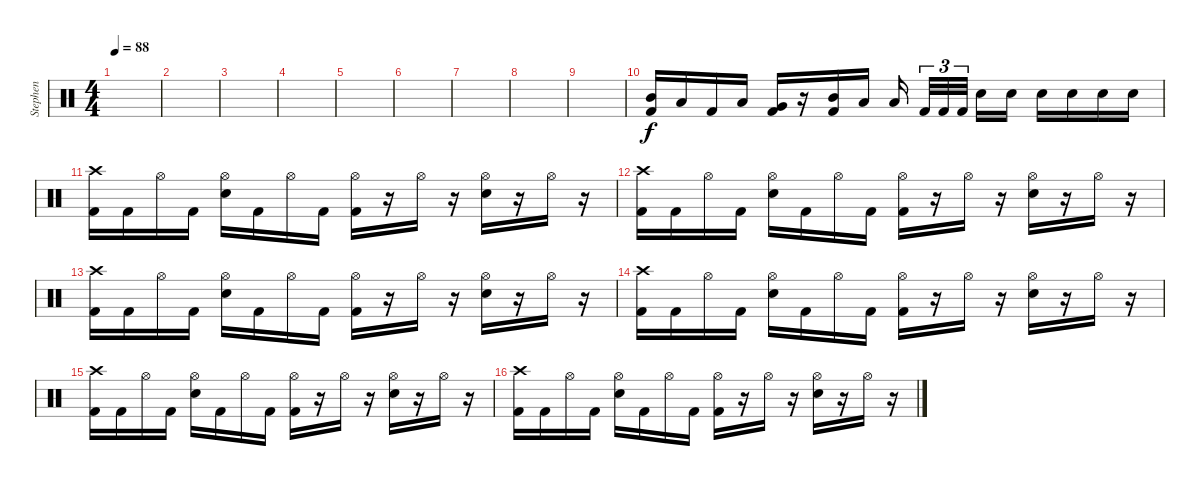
\track ("Stephen" "Stephen") {instrument percussion}
\staff {score}
\articulation defaults
\ts (4 4)
\tempo 88
\clef neutral
\ks c
|
|
|
|
|
|
|
|
|
("Mid Tom (hit)" "Kick (hit) 2").16 "Low Tom (hit)".16 "Kick (hit) 2".16 "Low Tom (hit)".16 ("Very Low Tom (hit)" "Kick (hit) 2").16 r.16 ("Mid Tom (hit)" "Kick (hit) 2").16 "Low Tom (hit)".16 "Low Floor Tom (hit)".16{beam splitsecondary} "Kick (hit) 2".32{tu (3 2)} "Kick (hit) 2".32{tu (3 2)} "Kick (hit) 2".32{tu (3 2) beam splitsecondary} "Electric Snare (hit)".16 "Electric Snare (hit)".16 "Electric Snare (hit)".16 "Electric Snare (hit)".16 "Electric Snare (hit)".16 "Electric Snare (hit)".16 |
("Crash high (hit)" "Kick (hit) 2").16 "Kick (hit) 2".16 "Hi-Hat (open)".16 "Kick (hit) 2".16 ("Hi-Hat (open)" "Electric Snare (hit)").16 "Kick (hit) 2".16 "Hi-Hat (open)".16 "Kick (hit) 2".16 ("Hi-Hat (open)" "Kick (hit) 2").16 r.16 "Hi-Hat (open)".16 r.16 ("Hi-Hat (open)" "Electric Snare (hit)").16 r.16 "Hi-Hat (open)".16 r.16 |
("Crash high (hit)" "Kick (hit) 2").16 "Kick (hit) 2".16 "Hi-Hat (open)".16 "Kick (hit) 2".16 ("Hi-Hat (open)" "Electric Snare (hit)").16 "Kick (hit) 2".16 "Hi-Hat (open)".16 "Kick (hit) 2".16 ("Hi-Hat (open)" "Kick (hit) 2").16 r.16 "Hi-Hat (open)".16 r.16 ("Hi-Hat (open)" "Electric Snare (hit)").16 r.16 "Hi-Hat (open)".16 r.16 |
("Crash high (hit)" "Kick (hit) 2").16 "Kick (hit) 2".16 "Hi-Hat (open)".16 "Kick (hit) 2".16 ("Hi-Hat (open)" "Electric Snare (hit)").16 "Kick (hit) 2".16 "Hi-Hat (open)".16 "Kick (hit) 2".16 ("Hi-Hat (open)" "Kick (hit) 2").16 r.16 "Hi-Hat (open)".16 r.16 ("Hi-Hat (open)" "Electric Snare (hit)").16 r.16 "Hi-Hat (open)".16 r.16 |
("Crash high (hit)" "Kick (hit) 2").16 "Kick (hit) 2".16 "Hi-Hat (open)".16 "Kick (hit) 2".16 ("Hi-Hat (open)" "Electric Snare (hit)").16 "Kick (hit) 2".16 "Hi-Hat (open)".16 "Kick (hit) 2".16 ("Hi-Hat (open)" "Kick (hit) 2").16 r.16 "Hi-Hat (open)".16 r.16 ("Hi-Hat (open)" "Electric Snare (hit)").16 r.16 "Hi-Hat (open)".16 r.16 |
("Crash high (hit)" "Kick (hit) 2").16 "Kick (hit) 2".16 "Hi-Hat (open)".16 "Kick (hit) 2".16 ("Hi-Hat (open)" "Electric Snare (hit)").16 "Kick (hit) 2".16 "Hi-Hat (open)".16 "Kick (hit) 2".16 ("Hi-Hat (open)" "Kick (hit) 2").16 r.16 "Hi-Hat (open)".16 r.16 ("Hi-Hat (open)" "Electric Snare (hit)").16 r.16 "Hi-Hat (open)".16 r.16 |
("Crash high (hit)" "Kick (hit) 2").16 "Kick (hit) 2".16 "Hi-Hat (open)".16 "Kick (hit) 2".16 ("Hi-Hat (open)" "Electric Snare (hit)").16 "Kick (hit) 2".16 "Hi-Hat (open)".16 "Kick (hit) 2".16 ("Hi-Hat (open)" "Kick (hit) 2").16 r.16 "Hi-Hat (open)".16 r.16 ("Hi-Hat (open)" "Electric Snare (hit)").16 r.16 "Hi-Hat (open)".16 r.16
